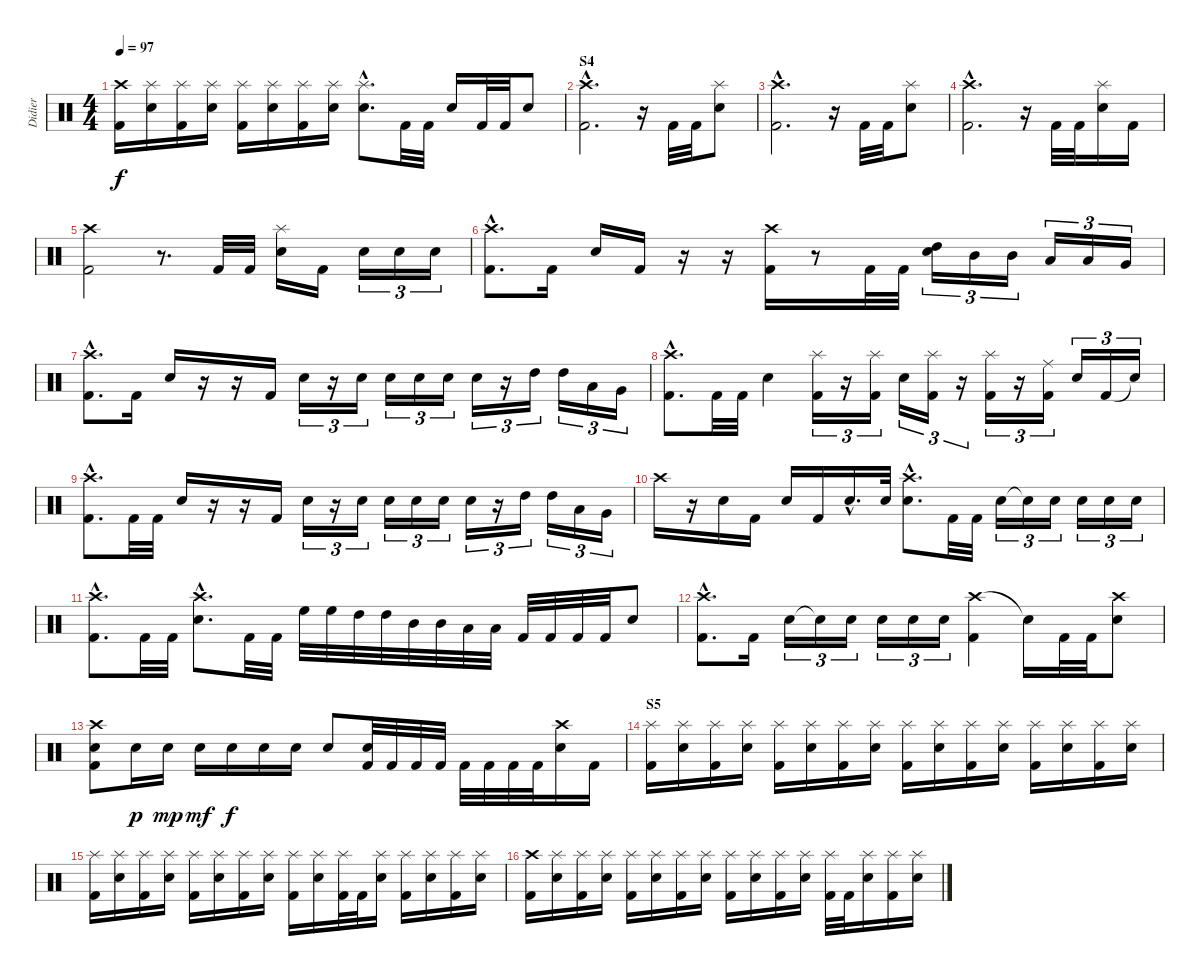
\track ("Didier" "Didier") {instrument percussion}
\staff {score}
\articulation defaults
\ts (4 4)
\tempo 97
\clef neutral
\ks c
("Crash high (hit)" "Kick (hit) 2").16{dy f} ("Splash (hit)" "Snare (hit) 2").16 ("Splash (hit)" "Kick (hit) 2").16 ("Splash (hit)" "Snare (hit) 2").16 ("Splash (hit)" "Kick (hit) 2").16 ("Splash (hit)" "Snare (hit) 2").16 ("Splash (hit)" "Kick (hit) 2").16 ("Splash (hit)" "Snare (hit) 2").16 ("Splash (hit)"{hac} "Snare (hit) 2"{hac}).8{d} "Kick (hit) 2".32 "Kick (hit) 2".32 "Snare (hit) 2".16 "Kick (hit) 2".32 "Kick (hit) 2".32 "Snare (hit) 2".8 |
\section ("" "S4")
("Crash high (hit)"{hac} "Kick (hit) 2"{hac}).2{d} r.16 "Kick (hit) 2".32 "Kick (hit) 2".32 ("Splash (hit)" "Snare (hit) 2").8 |
("Crash high (hit)"{hac} "Kick (hit) 2"{hac}).2{d} r.16 "Kick (hit) 2".32 "Kick (hit) 2".32 ("Splash (hit)" "Snare (hit) 2").8 |
("Crash high (hit)"{hac} "Kick (hit) 2"{hac}).2{d} r.16 "Kick (hit) 2".32 "Kick (hit) 2".32 ("Splash (hit)" "Snare (hit) 2").16 "Kick (hit) 2".16 |
("Crash high (hit)" "Kick (hit) 2").2 r.8{d} "Kick (hit) 2".32 "Kick (hit) 2".32 ("Splash (hit)" "Snare (hit) 2").16 "Kick (hit) 2".16 "Snare (hit) 2".16{tu (3 2)} "Snare (hit) 2".16{tu (3 2)} "Snare (hit) 2".16{tu (3 2)} |
("Crash high (hit)"{hac} "Kick (hit) 2"{hac}).8{d} "Kick (hit) 2".16 "Snare (hit) 2".16 "Kick (hit) 2".16 r.16 r.16 ("Crash high (hit)" "Kick (hit) 2").16 r.8 "Kick (hit) 2".32 "Kick (hit) 2".32 ("High Tom (hit)" "Snare (hit) 2").16{tu (3 2)} "Mid Tom (hit)".16{tu (3 2)} "Mid Tom (hit)".16{tu (3 2)} "Low Tom (hit)".16{tu (3 2)} "Low Tom (hit)".16{tu (3 2)} "Very Low Tom (hit)".16{tu (3 2)} |
("Crash high (hit)"{hac} "Kick (hit) 2"{hac}).8{d} "Kick (hit) 2".16 "Snare (hit) 2".16 r.16 r.16 "Kick (hit) 2".16 "Snare (hit) 2".16{tu (3 2)} r.16{tu (3 2)} "Snare (hit) 2".16{tu (3 2)} "Snare (hit) 2".16{tu (3 2)} "Snare (hit) 2".16{tu (3 2)} "Snare (hit) 2".16{tu (3 2)} "Snare (hit) 2".16{tu (3 2)} r.16{tu (3 2)} "High Tom (hit)".16{tu (3 2)} "High Tom (hit)".16{tu (3 2)} "Low Tom (hit)".16{tu (3 2)} "Very Low Tom (hit)".16{tu (3 2)} |
("Crash high (hit)"{hac} "Kick (hit) 2"{hac}).8{d} "Kick (hit) 2".32 "Kick (hit) 2".32 "Snare (hit) 2".4 ("Splash (hit)" "Kick (hit) 2").16{tu (3 2)} r.16{tu (3 2)} ("Splash (hit)" "Kick (hit) 2").16{tu (3 2)} "Snare (hit) 2".16{tu (3 2)} ("Splash (hit)" "Kick (hit) 2").16{tu (3 2)} r.16{tu (3 2)} ("Splash (hit)" "Kick (hit) 2").16{tu (3 2)} r.16{tu (3 2)} ("Ride (middle)" "Kick (hit) 2").16{tu (3 2)} "Snare (hit) 2".16{tu (3 2)} "Kick (hit) 2".16{tu (3 2)} "Snare (hit)"{t}.16{tu (3 2)} |
("Crash high (hit)"{hac} "Kick (hit) 2"{hac}).8{d} "Kick (hit) 2".32 "Kick (hit) 2".32 "Snare (hit) 2".16 r.16 r.16 "Kick (hit) 2".16 "Snare (hit) 2".16{tu (3 2)} r.16{tu (3 2)} "Snare (hit) 2".16{tu (3 2)} "Snare (hit) 2".16{tu (3 2)} "Snare (hit) 2".16{tu (3 2)} "Snare (hit) 2".16{tu (3 2)} "Snare (hit) 2".16{tu (3 2)} r.16{tu (3 2)} "High Tom (hit)".16{tu (3 2)} "High Tom (hit)".16{tu (3 2)} "Low Tom (hit)".16{tu (3 2)} "Very Low Tom (hit)".16{tu (3 2)} |
"Crash high (hit)".16 r.16 "Snare (hit) 2".16 "Kick (hit) 2".16 "Snare (hit) 2".16 "Kick (hit) 2".16 "Snare (hit) 2"{hac}.16{d} "Snare (hit) 2".32 ("Crash high (hit)"{hac} "Snare (hit) 2"{hac}).8{d} "Kick (hit) 2".32 "Kick (hit) 2".32 "Snare (hit) 2".16{tu (3 2)} "Snare (hit) 2"{t}.16{tu (3 2)} "Snare (hit) 2".16{tu (3 2)} "Snare (hit) 2".16{tu (3 2)} "Snare (hit) 2".16{tu (3 2)} "Snare (hit) 2".16{tu (3 2)} |
("Crash high (hit)"{hac} "Kick (hit) 2"{hac}).8{d} "Kick (hit) 2".32 "Kick (hit) 2".32 ("Crash high (hit)"{hac} "Snare (hit) 2"{hac}).8{d} "Kick (hit) 2".32 "Kick (hit) 2".32 "High Floor Tom (hit)".32 "High Floor Tom (hit)".32 "High Tom (hit)".32 "High Tom (hit)".32 "Mid Tom (hit)".32 "Mid Tom (hit)".32 "Low Tom (hit)".32 "Low Tom (hit)".32 "Kick (hit) 2".32 "Kick (hit) 2".32 "Kick (hit) 2".32 "Kick (hit) 2".32 "Snare (hit) 2".8 |
("Crash high (hit)"{hac} "Kick (hit) 2"{hac}).8{d} "Kick (hit) 2".16 "Snare (hit) 2".16{tu (3 2)} "Snare (hit)"{t}.16{tu (3 2)} "Snare (hit) 2".16{tu (3 2)} "Snare (hit) 2".16{tu (3 2)} "Snare (hit) 2".16{tu (3 2)} "Snare (hit) 2".16{tu (3 2)} ("Crash high (hit)" "Kick (hit) 2").4 "Snare (hit)"{t}.16 "Kick (hit) 2".32 "Kick (hit) 2".32 ("Crash high (hit)" "Snare (hit) 2").8 |
("Crash high (hit)" "Snare (hit) 2" "Kick (hit) 2").8 "Snare (hit) 2".16{dy p} "Snare (hit) 2".16{dy mp} "Snare (hit) 2".16{dy mf} "Snare (hit) 2".16{dy f} "Snare (hit) 2".16 "Snare (hit) 2".16 "Snare (hit) 2".8 ("Snare (hit) 2" "Kick (hit) 2").32 "Kick (hit) 2".32 "Kick (hit) 2".32 "Kick (hit) 2".32 "Kick (hit) 2".32 "Kick (hit) 2".32 "Kick (hit) 2".32 "Kick (hit) 2".32 ("Crash high (hit)" "Snare (hit) 2").16 "Kick (hit) 2".16 |
\section ("" "S5")
("Splash (hit)" "Kick (hit) 2").16 ("Splash (hit)" "Snare (hit) 2").16 ("Splash (hit)" "Kick (hit) 2").16 ("Splash (hit)" "Snare (hit) 2").16 ("Splash (hit)" "Kick (hit) 2").16 ("Splash (hit)" "Snare (hit) 2").16 ("Splash (hit)" "Kick (hit) 2").16 ("Splash (hit)" "Snare (hit) 2").16 ("Splash (hit)" "Kick (hit) 2").16 ("Splash (hit)" "Snare (hit) 2").16 ("Splash (hit)" "Kick (hit) 2").16 ("Splash (hit)" "Snare (hit) 2").16 ("Splash (hit)" "Kick (hit) 2").16 ("Splash (hit)" "Snare (hit) 2").16 ("Splash (hit)" "Kick (hit) 2").16 ("Splash (hit)" "Snare (hit) 2").16 |
("Splash (hit)" "Kick (hit) 2").16 ("Splash (hit)" "Snare (hit) 2").16 ("Splash (hit)" "Kick (hit) 2").16 ("Splash (hit)" "Snare (hit) 2").16 ("Splash (hit)" "Kick (hit) 2").16 ("Splash (hit)" "Snare (hit) 2").16 ("Splash (hit)" "Kick (hit) 2").16 ("Splash (hit)" "Snare (hit) 2").16 ("Splash (hit)" "Kick (hit) 2").16 ("Splash (hit)" "Snare (hit) 2").16 ("Splash (hit)" "Kick (hit) 2").32 "Kick (hit) 2".32 ("Splash (hit)" "Snare (hit) 2").16 ("Splash (hit)" "Kick (hit) 2").16 ("Splash (hit)" "Snare (hit) 2").16 ("Splash (hit)" "Kick (hit) 2").16 ("Splash (hit)" "Snare (hit) 2").16 |
("Crash high (hit)" "Kick (hit) 2").16 ("Splash (hit)" "Snare (hit) 2").16 ("Splash (hit)" "Kick (hit) 2").16 ("Splash (hit)" "Snare (hit) 2").16 ("Splash (hit)" "Kick (hit) 2").16 ("Splash (hit)" "Snare (hit) 2").16 ("Splash (hit)" "Kick (hit) 2").16 ("Splash (hit)" "Snare (hit) 2").16 ("Splash (hit)" "Kick (hit) 2").16 ("Splash (hit)" "Snare (hit) 2").16 ("Splash (hit)" "Kick (hit) 2").16 ("Splash (hit)" "Snare (hit) 2").16 ("Splash (hit)" "Kick (hit) 2").32 "Kick (hit) 2".32 ("Splash (hit)" "Snare (hit) 2").16 ("Splash (hit)" "Kick (hit) 2").16 ("Splash (hit)" "Snare (hit) 2").16
